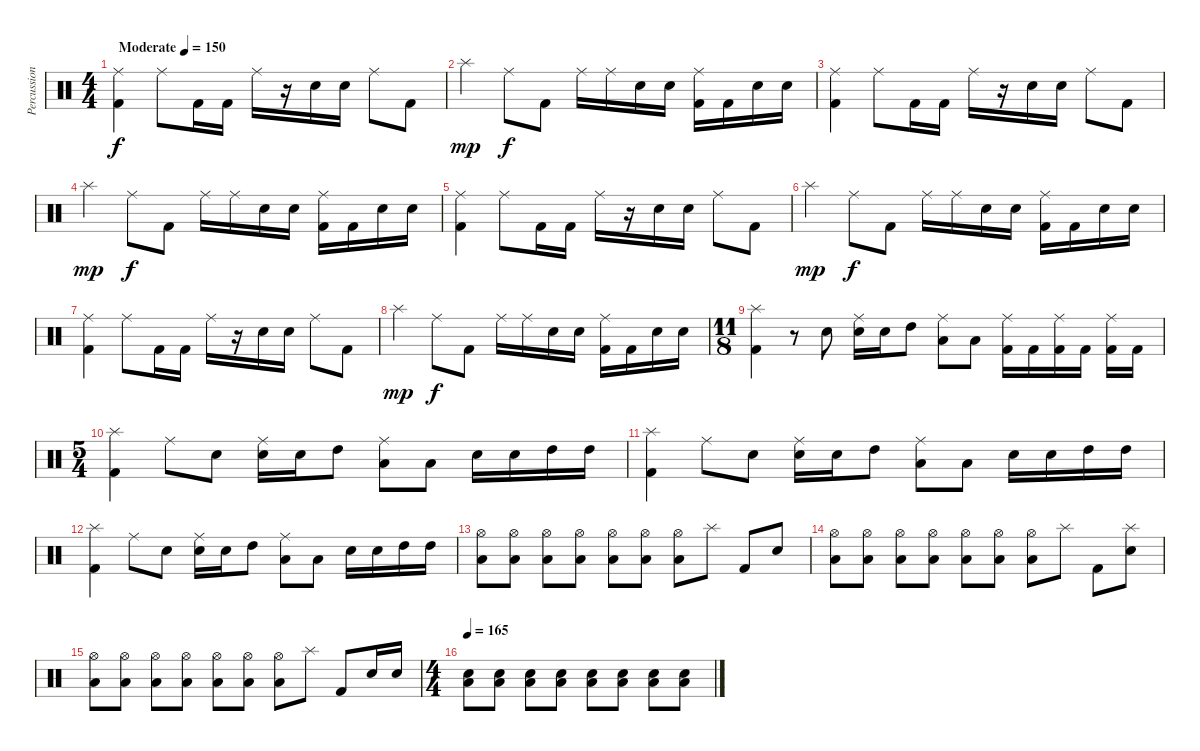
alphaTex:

\track ("Percussion" "Percussion") {instrument percussion}
\staff {score}
\articulation defaults
\ts (4 4)
\tempo (150 "Moderate")
\clef neutral
\ks c
("Ride (middle)" "Kick (hit) 2").4{dy f} "Ride (middle)".8 "Kick (hit) 2".16 "Kick (hit) 2".16 "Ride (middle)".16 r.16 "Electric Snare (hit)".16 "Electric Snare (hit)".16 "Ride (middle)".8 "Kick (hit) 2".8 |
"Splash (hit)".4{dy mp} "Ride (middle)".8{dy f} "Kick (hit) 2".8 "Ride (middle)".16 "Ride (middle)".16 "Electric Snare (hit)".16 "Electric Snare (hit)".16 ("Ride (middle)" "Kick (hit) 2").16 "Kick (hit) 2".16 "Electric Snare (hit)".16 "Electric Snare (hit)".16 |
("Ride (middle)" "Kick (hit) 2").4 "Ride (middle)".8 "Kick (hit) 2".16 "Kick (hit) 2".16 "Ride (middle)".16 r.16 "Electric Snare (hit)".16 "Electric Snare (hit)".16 "Ride (middle)".8 "Kick (hit) 2".8 |
"Splash (hit)".4{dy mp} "Ride (middle)".8{dy f} "Kick (hit) 2".8 "Ride (middle)".16 "Ride (middle)".16 "Electric Snare (hit)".16 "Electric Snare (hit)".16 ("Ride (middle)" "Kick (hit) 2").16 "Kick (hit) 2".16 "Electric Snare (hit)".16 "Electric Snare (hit)".16 |
("Ride (middle)" "Kick (hit) 2").4 "Ride (middle)".8 "Kick (hit) 2".16 "Kick (hit) 2".16 "Ride (middle)".16 r.16 "Electric Snare (hit)".16 "Electric Snare (hit)".16 "Ride (middle)".8 "Kick (hit) 2".8 |
"Splash (hit)".4{dy mp} "Ride (middle)".8{dy f} "Kick (hit) 2".8 "Ride (middle)".16 "Ride (middle)".16 "Electric Snare (hit)".16 "Electric Snare (hit)".16 ("Ride (middle)" "Kick (hit) 2").16 "Kick (hit) 2".16 "Electric Snare (hit)".16 "Electric Snare (hit)".16 |
("Ride (middle)" "Kick (hit) 2").4 "Ride (middle)".8 "Kick (hit) 2".16 "Kick (hit) 2".16 "Ride (middle)".16 r.16 "Electric Snare (hit)".16 "Electric Snare (hit)".16 "Ride (middle)".8 "Kick (hit) 2".8 |
"Splash (hit)".4{dy mp} "Ride (middle)".8{dy f} "Kick (hit) 2".8 "Ride (middle)".16 "Ride (middle)".16 "Electric Snare (hit)".16 "Electric Snare (hit)".16 ("Ride (middle)" "Kick (hit) 2").16 "Kick (hit) 2".16 "Electric Snare (hit)".16 "Electric Snare (hit)".16 |
\ts (11 8)
("Splash (hit)" "Kick (hit) 2").4 r.8 "Electric Snare (hit)".8 ("Ride (middle)" "Electric Snare (hit)").16 "Electric Snare (hit)".16 "High Tom (hit)".8 ("Ride (middle)" "Low Tom (hit)").8 "Low Floor Tom (hit)".8 ("Ride (middle)" "Kick (hit) 2").16 "Kick (hit) 2".16 ("Ride (middle)" "Kick (hit) 2").16 "Kick (hit) 2".16 ("Ride (middle)" "Kick (hit) 2").16 "Kick (hit) 2".16 |
\ts (5 4)
("Splash (hit)" "Kick (hit) 2").4 "Ride (middle)".8 "Electric Snare (hit)".8 ("Ride (middle)" "Electric Snare (hit)").16 "Electric Snare (hit)".16 "High Tom (hit)".8 ("Ride (middle)" "Low Tom (hit)").8 "Low Floor Tom (hit)".8 "Electric Snare (hit)".16 "Electric Snare (hit)".16 "High Tom (hit)".16 "High Tom (hit)".16 |
("Splash (hit)" "Kick (hit) 2").4 "Ride (middle)".8 "Electric Snare (hit)".8 ("Ride (middle)" "Electric Snare (hit)").16 "Electric Snare (hit)".16 "High Tom (hit)".8 ("Ride (middle)" "Low Tom (hit)").8 "Low Floor Tom (hit)".8 "Electric Snare (hit)".16 "Electric Snare (hit)".16 "High Tom (hit)".16 "High Tom (hit)".16 |
("Splash (hit)" "Kick (hit) 2").4 "Ride (middle)".8 "Electric Snare (hit)".8 ("Ride (middle)" "Electric Snare (hit)").16 "Electric Snare (hit)".16 "High Tom (hit)".8 ("Ride (middle)" "Low Tom (hit)").8 "Low Floor Tom (hit)".8 "Electric Snare (hit)".16 "Electric Snare (hit)".16 "High Tom (hit)".16 "High Tom (hit)".16 |
("Hi-Hat (open)" "Low Floor Tom (hit)").8 ("Hi-Hat (open)" "Low Floor Tom (hit)").8 ("Hi-Hat (open)" "Low Floor Tom (hit)").8 ("Hi-Hat (open)" "Low Floor Tom (hit)").8 ("Hi-Hat (open)" "Low Floor Tom (hit)").8 ("Hi-Hat (open)" "Low Floor Tom (hit)").8 ("Hi-Hat (open)" "Low Floor Tom (hit)").8 "Splash (hit)".8 "Kick (hit) 2".8 "Electric Snare (hit)".8 |
("Hi-Hat (open)" "Low Floor Tom (hit)").8 ("Hi-Hat (open)" "Low Floor Tom (hit)").8 ("Hi-Hat (open)" "Low Floor Tom (hit)").8 ("Hi-Hat (open)" "Low Floor Tom (hit)").8 ("Hi-Hat (open)" "Low Floor Tom (hit)").8 ("Hi-Hat (open)" "Low Floor Tom (hit)").8 ("Hi-Hat (open)" "Low Floor Tom (hit)").8 "Splash (hit)".8 "Kick (hit) 2".8 ("Splash (hit)" "Electric Snare (hit)").8 |
("Hi-Hat (open)" "Low Floor Tom (hit)").8 ("Hi-Hat (open)" "Low Floor Tom (hit)").8 ("Hi-Hat (open)" "Low Floor Tom (hit)").8 ("Hi-Hat (open)" "Low Floor Tom (hit)").8 ("Hi-Hat (open)" "Low Floor Tom (hit)").8 ("Hi-Hat (open)" "Low Floor Tom (hit)").8 ("Hi-Hat (open)" "Low Floor Tom (hit)").8 "Splash (hit)".8 "Kick (hit) 2".8 "Electric Snare (hit)".16 "Electric Snare (hit)".16 |
\ts (4 4)
\tempo 165
("Low Floor Tom (hit)" "Electric Snare (hit)").8 ("Low Floor Tom (hit)" "Electric Snare (hit)").8 ("Low Floor Tom (hit)" "Electric Snare (hit)").8 ("Low Floor Tom (hit)" "Electric Snare (hit)").8 ("Low Floor Tom (hit)" "Electric Snare (hit)").8 ("Low Floor Tom (hit)" "Electric Snare (hit)").8 ("Low Floor Tom (hit)" "Electric Snare (hit)").8 ("Low Floor Tom (hit)" "Electric Snare (hit)").8
